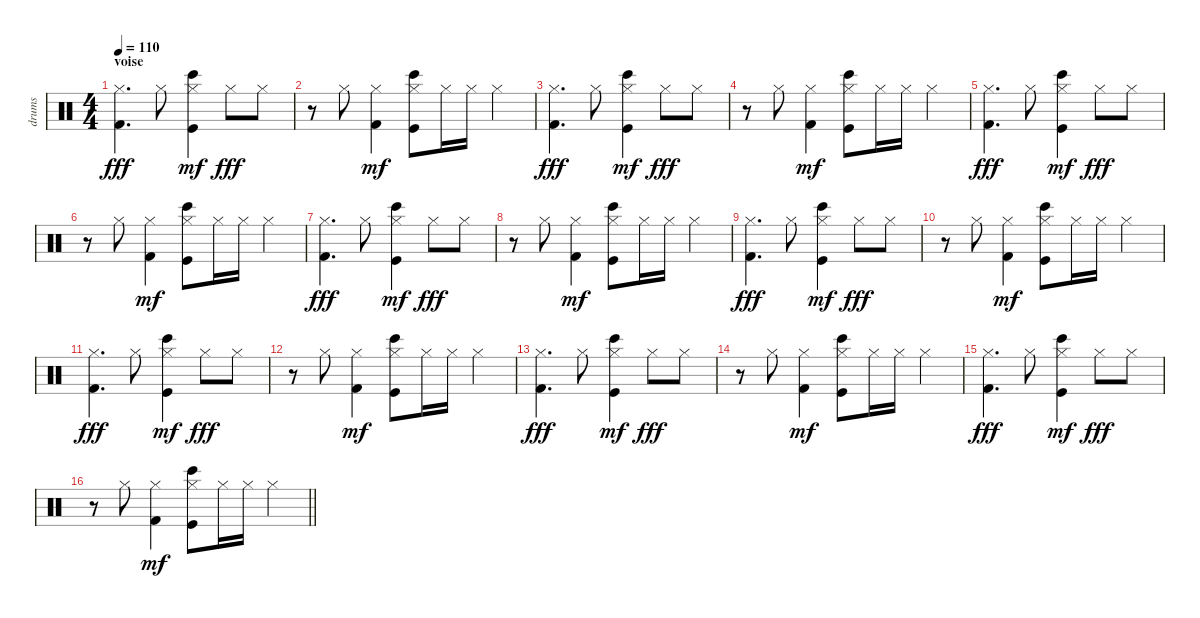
\track ("drums" "drums") {instrument percussion}
\staff {score}
\articulation defaults
\ts (4 4)
\section ("" "voise")
\tempo 110
\clef neutral
\ks c
("Kick (hit) 2" "Hi-Hat (closed)").4{d dy fff balance 8} "Hi-Hat (closed)".8 ("Hi-Hat (closed)" "Bongo High (hit)" "Kick (hit)").4{dy mf} "Hi-Hat (closed)".8{dy fff} "Hi-Hat (closed)".8 |
r.8 "Hi-Hat (closed)".8 ("Hi-Hat (closed)" "Kick (hit) 2").4{dy mf} ("Hi-Hat (closed)" "Bongo High (hit)" "Kick (hit)").8 "Hi-Hat (closed)".16 "Hi-Hat (closed)".16 "Hi-Hat (closed)".4 |
("Kick (hit) 2" "Hi-Hat (closed)").4{d dy fff} "Hi-Hat (closed)".8 ("Hi-Hat (closed)" "Bongo High (hit)" "Kick (hit)").4{dy mf} "Hi-Hat (closed)".8{dy fff} "Hi-Hat (closed)".8 |
r.8 "Hi-Hat (closed)".8 ("Hi-Hat (closed)" "Kick (hit) 2").4{dy mf} ("Hi-Hat (closed)" "Bongo High (hit)" "Kick (hit)").8 "Hi-Hat (closed)".16 "Hi-Hat (closed)".16 "Hi-Hat (closed)".4 |
("Kick (hit) 2" "Hi-Hat (closed)").4{d dy fff} "Hi-Hat (closed)".8 ("Hi-Hat (closed)" "Bongo High (hit)" "Kick (hit)").4{dy mf} "Hi-Hat (closed)".8{dy fff} "Hi-Hat (closed)".8 |
r.8 "Hi-Hat (closed)".8 ("Hi-Hat (closed)" "Kick (hit) 2").4{dy mf} ("Hi-Hat (closed)" "Bongo High (hit)" "Kick (hit)").8 "Hi-Hat (closed)".16 "Hi-Hat (closed)".16 "Hi-Hat (closed)".4 |
("Kick (hit) 2" "Hi-Hat (closed)").4{d dy fff} "Hi-Hat (closed)".8 ("Hi-Hat (closed)" "Bongo High (hit)" "Kick (hit)").4{dy mf} "Hi-Hat (closed)".8{dy fff} "Hi-Hat (closed)".8 |
r.8 "Hi-Hat (closed)".8 ("Hi-Hat (closed)" "Kick (hit) 2").4{dy mf} ("Hi-Hat (closed)" "Bongo High (hit)" "Kick (hit)").8 "Hi-Hat (closed)".16 "Hi-Hat (closed)".16 "Hi-Hat (closed)".4 |
("Kick (hit) 2" "Hi-Hat (closed)").4{d dy fff} "Hi-Hat (closed)".8 ("Hi-Hat (closed)" "Bongo High (hit)" "Kick (hit)").4{dy mf} "Hi-Hat (closed)".8{dy fff} "Hi-Hat (closed)".8 |
r.8 "Hi-Hat (closed)".8 ("Hi-Hat (closed)" "Kick (hit) 2").4{dy mf} ("Hi-Hat (closed)" "Bongo High (hit)" "Kick (hit)").8 "Hi-Hat (closed)".16 "Hi-Hat (closed)".16 "Hi-Hat (closed)".4 |
("Kick (hit) 2" "Hi-Hat (closed)").4{d dy fff} "Hi-Hat (closed)".8 ("Hi-Hat (closed)" "Bongo High (hit)" "Kick (hit)").4{dy mf} "Hi-Hat (closed)".8{dy fff} "Hi-Hat (closed)".8 |
r.8 "Hi-Hat (closed)".8 ("Hi-Hat (closed)" "Kick (hit) 2").4{dy mf} ("Hi-Hat (closed)" "Bongo High (hit)" "Kick (hit)").8 "Hi-Hat (closed)".16 "Hi-Hat (closed)".16 "Hi-Hat (closed)".4 |
("Kick (hit) 2" "Hi-Hat (closed)").4{d dy fff} "Hi-Hat (closed)".8 ("Hi-Hat (closed)" "Bongo High (hit)" "Kick (hit)").4{dy mf} "Hi-Hat (closed)".8{dy fff} "Hi-Hat (closed)".8 |
r.8 "Hi-Hat (closed)".8 ("Hi-Hat (closed)" "Kick (hit) 2").4{dy mf} ("Hi-Hat (closed)" "Bongo High (hit)" "Kick (hit)").8 "Hi-Hat (closed)".16 "Hi-Hat (closed)".16 "Hi-Hat (closed)".4 |
("Kick (hit) 2" "Hi-Hat (closed)").4{d dy fff} "Hi-Hat (closed)".8 ("Hi-Hat (closed)" "Bongo High (hit)" "Kick (hit)").4{dy mf} "Hi-Hat (closed)".8{dy fff} "Hi-Hat (closed)".8 |
\barLineRight lightlight
r.8 "Hi-Hat (closed)".8 ("Hi-Hat (closed)" "Kick (hit) 2").4{dy mf} ("Hi-Hat (closed)" "Bongo High (hit)" "Kick (hit)").8 "Hi-Hat (closed)".16 "Hi-Hat (closed)".16 "Hi-Hat (closed)".4
